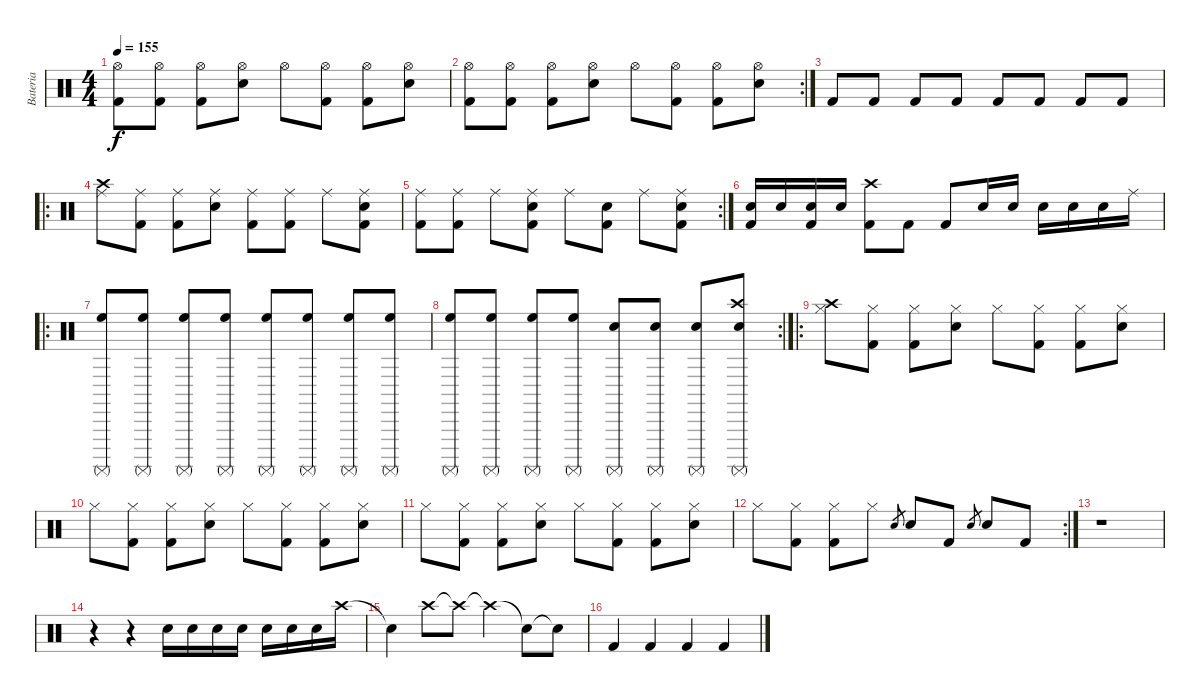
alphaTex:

\track ("Bateria" "Bateria") {instrument percussion}
\staff {score}
\articulation defaults
\ts (4 4)
\tempo 155
\clef neutral
\ks c
("Hi-Hat (open)" "Kick (hit) 2").8{dy f} ("Hi-Hat (open)" "Kick (hit) 2").8 ("Hi-Hat (open)" "Kick (hit) 2").8 ("Snare (hit) 2" "Hi-Hat (open)").8 "Hi-Hat (open)".8 ("Hi-Hat (open)" "Kick (hit) 2").8 ("Hi-Hat (open)" "Kick (hit) 2").8 ("Snare (hit) 2" "Hi-Hat (open)").8 |
\rc 2
("Hi-Hat (open)" "Kick (hit) 2").8 ("Hi-Hat (open)" "Kick (hit) 2").8 ("Hi-Hat (open)" "Kick (hit) 2").8 ("Snare (hit) 2" "Hi-Hat (open)").8 "Hi-Hat (open)".8 ("Hi-Hat (open)" "Kick (hit) 2").8 ("Hi-Hat (open)" "Kick (hit) 2").8 ("Snare (hit) 2" "Hi-Hat (open)").8 |
"Kick (hit) 2".8 "Kick (hit) 2".8 "Kick (hit) 2".8 "Kick (hit) 2".8 "Kick (hit) 2".8 "Kick (hit) 2".8 "Kick (hit) 2".8 "Kick (hit) 2".8 |
\ro
("Crash high (hit)" "Ride (middle)").8 ("Ride (middle)" "Kick (hit) 2").8 ("Ride (middle)" "Kick (hit) 2").8 ("Snare (hit) 2" "Ride (middle)").8 ("Ride (middle)" "Kick (hit) 2").8 ("Ride (middle)" "Kick (hit) 2").8 "Ride (middle)".8 ("Snare (hit) 2" "Ride (middle)" "Kick (hit) 2").8 |
\rc 2
("Ride (middle)" "Kick (hit) 2").8 ("Ride (middle)" "Kick (hit) 2").8 "Ride (middle)".8 ("Snare (hit) 2" "Ride (middle)" "Kick (hit) 2").8 "Ride (middle)".8 ("Snare (hit)" "Kick (hit) 2").8 "Ride (middle)".8 ("Snare (hit) 2" "Ride (middle)" "Kick (hit) 2").8 |
("Kick (hit) 2" "Snare (hit) 2").16 "Snare (hit) 2".16 ("Kick (hit) 2" "Snare (hit) 2").16 "Snare (hit) 2".16 ("Crash high (hit)" "Kick (hit) 2").8 "Kick (hit) 2".8 "Kick (hit) 2".8 "Snare (hit) 2".16 "Snare (hit) 2".16 "Snare (hit) 2".16 "Snare (hit) 2".16 "Snare (hit) 2".16 "Ride (middle)".16 |
\ro
("High Floor Tom (hit)" "Surdo (mute)").8 ("High Floor Tom (hit)" "Surdo (mute)").8 ("High Floor Tom (hit)" "Surdo (mute)").8 ("High Floor Tom (hit)" "Surdo (mute)").8 ("High Floor Tom (hit)" "Surdo (mute)").8 ("High Floor Tom (hit)" "Surdo (mute)").8 ("High Floor Tom (hit)" "Surdo (mute)").8 ("High Floor Tom (hit)" "Surdo (mute)").8 |
\rc 2
("High Floor Tom (hit)" "Surdo (mute)").8 ("High Floor Tom (hit)" "Surdo (mute)").8 ("High Floor Tom (hit)" "Surdo (mute)").8 ("High Floor Tom (hit)" "Surdo (mute)").8 ("Snare (hit) 2" "Surdo (mute)").8 ("Snare (hit) 2" "Surdo (mute)").8 ("Snare (hit) 2" "Surdo (mute)").8 ("Crash high (hit)" "Snare (hit) 2" "Surdo (mute)").8 |
\ro
("Crash high (hit)" "Hi-Hat (closed)").8 ("Hi-Hat (closed)" "Kick (hit) 2").8 ("Hi-Hat (closed)" "Kick (hit) 2").8 ("Snare (hit) 2" "Hi-Hat (closed)").8 "Hi-Hat (closed)".8 ("Hi-Hat (closed)" "Kick (hit) 2").8 ("Hi-Hat (closed)" "Kick (hit) 2").8 ("Snare (hit) 2" "Hi-Hat (closed)").8 |
"Hi-Hat (closed)".8 ("Hi-Hat (closed)" "Kick (hit) 2").8 ("Hi-Hat (closed)" "Kick (hit) 2").8 ("Snare (hit) 2" "Hi-Hat (closed)").8 "Hi-Hat (closed)".8 ("Hi-Hat (closed)" "Kick (hit) 2").8 ("Hi-Hat (closed)" "Kick (hit) 2").8 ("Snare (hit) 2" "Hi-Hat (closed)").8 |
"Hi-Hat (closed)".8 ("Hi-Hat (closed)" "Kick (hit) 2").8 ("Hi-Hat (closed)" "Kick (hit) 2").8 ("Snare (hit) 2" "Hi-Hat (closed)").8 "Hi-Hat (closed)".8 ("Hi-Hat (closed)" "Kick (hit) 2").8 ("Hi-Hat (closed)" "Kick (hit) 2").8 ("Snare (hit) 2" "Hi-Hat (closed)").8 |
\rc 2 "Hi-Hat (closed)".8
("Hi-Hat (closed)" "Kick (hit) 2").8 ("Hi-Hat (closed)" "Kick (hit) 2").8 "Hi-Hat (closed)".8 "Snare (hit) 2".8{gr} "Snare (hit) 2".8 "Kick (hit) 2".8 "Snare (hit) 2".8{gr} "Snare (hit) 2".8 "Kick (hit) 2".8 |
r.1 |
r.4 r.4 "Snare (hit) 2".16 "Snare (hit) 2".16 "Snare (hit) 2".16 "Snare (hit) 2".16 "Snare (hit) 2".16 "Snare (hit) 2".16 "Snare (hit) 2".16 "Crash high (hit)".16 |
"Snare (hit)"{t}.4 "Crash high (hit)".8 "Crash high (hit)"{t}.8 "Crash high (hit)"{t}.4 "Snare (hit)"{t}.8 "Snare (hit) 2"{t}.8 |
"Kick (hit) 2".4 "Kick (hit) 2".4 "Kick (hit) 2".4 "Kick (hit) 2".4
